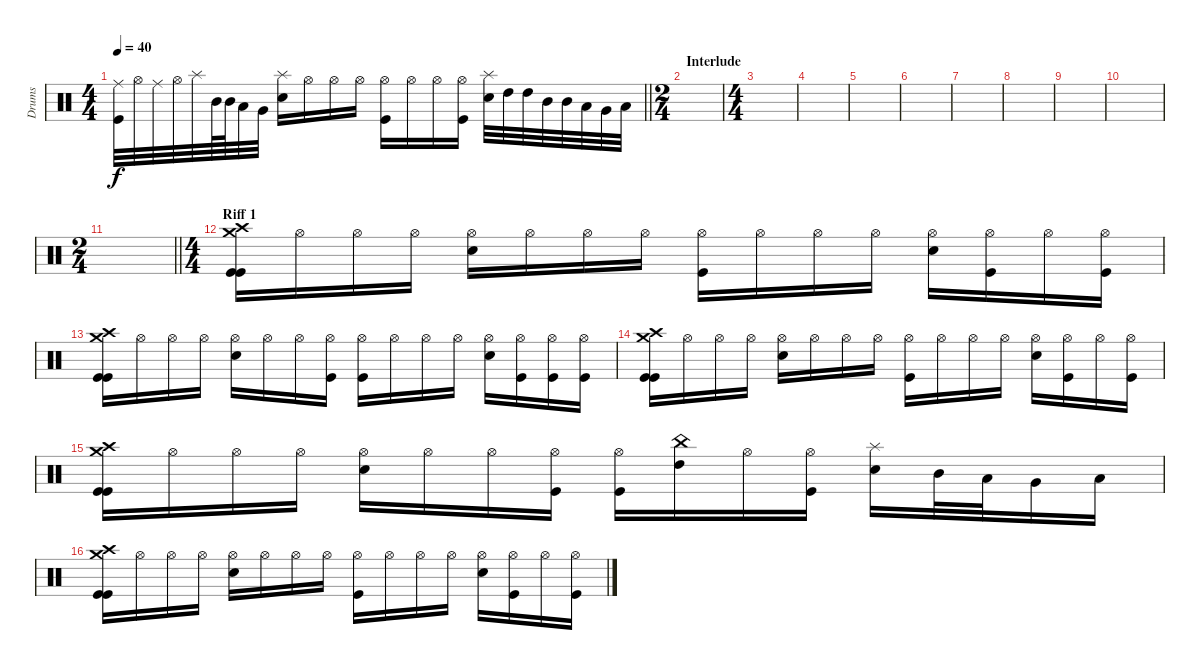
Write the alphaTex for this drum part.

\track ("Drums" "Drums") {instrument percussion}
\staff {score}
\articulation defaults
\ts (4 4)
\tempo 40
\clef neutral
\barLineRight lightlight
\ks c
("Kick (hit)" "Ride (middle)").32{dy f} "Hi-Hat (open)".32 "Ride (middle)".32 "Hi-Hat (open)".32 "Splash (hit)".32 "Mid Tom (hit)".64 "Mid Tom (hit)".64 "Low Tom (hit)".32 "Very Low Tom (hit)".32 ("Snare (hit) 2" "Splash (hit)").16 "Hi-Hat (open)".16 "Hi-Hat (open)".16 "Hi-Hat (open)".16 ("Hi-Hat (open)" "Kick (hit)").16 "Hi-Hat (open)".16 "Hi-Hat (open)".16 ("Kick (hit)" "Hi-Hat (open)").16 ("Splash (hit)" "Snare (hit) 2").32 "High Tom (hit)".32 "High Tom (hit)".32 "Mid Tom (hit)".32 "Mid Tom (hit)".32 "Low Tom (hit)".32 "Very Low Tom (hit)".32 "Low Floor Tom (hit)".32 |
\ts (2 4)
\section ("" "Interlude")
|
\ts (4 4)
|
|
|
|
|
|
|
|
\ts (2 4)
\barLineRight lightlight
|
\ts (4 4)
\section ("" "Riff 1")
("Crash medium (hit)" "Crash high (hit)" "Kick (hit)" "Kick (hit)").16 "Hi-Hat (open)".16 "Hi-Hat (open)".16 "Hi-Hat (open)".16 ("Hi-Hat (open)" "Snare (hit) 2").16 "Hi-Hat (open)".16 "Hi-Hat (open)".16 "Hi-Hat (open)".16 ("Hi-Hat (open)" "Kick (hit)").16 "Hi-Hat (open)".16 "Hi-Hat (open)".16 "Hi-Hat (open)".16 ("Hi-Hat (open)" "Snare (hit) 2").16 ("Hi-Hat (open)" "Kick (hit)").16 "Hi-Hat (open)".16 ("Hi-Hat (open)" "Kick (hit)").16 |
("Crash medium (hit)" "Crash high (hit)" "Kick (hit)" "Kick (hit)").16 "Hi-Hat (open)".16 "Hi-Hat (open)".16 "Hi-Hat (open)".16 ("Hi-Hat (open)" "Snare (hit) 2").16 "Hi-Hat (open)".16 "Hi-Hat (open)".16 ("Hi-Hat (open)" "Kick (hit)").16 ("Hi-Hat (open)" "Kick (hit)").16 "Hi-Hat (open)".16 "Hi-Hat (open)".16 "Hi-Hat (open)".16 ("Hi-Hat (open)" "Snare (hit) 2").16 ("Hi-Hat (open)" "Kick (hit)").16 ("Hi-Hat (open)" "Kick (hit)").16 ("Hi-Hat (open)" "Kick (hit)").16 |
("Crash medium (hit)" "Crash high (hit)" "Kick (hit)" "Kick (hit)").16 "Hi-Hat (open)".16 "Hi-Hat (open)".16 "Hi-Hat (open)".16 ("Hi-Hat (open)" "Snare (hit) 2").16 "Hi-Hat (open)".16 "Hi-Hat (open)".16 "Hi-Hat (open)".16 ("Hi-Hat (open)" "Kick (hit)").16 "Hi-Hat (open)".16 "Hi-Hat (open)".16 "Hi-Hat (open)".16 ("Hi-Hat (open)" "Snare (hit) 2").16 ("Hi-Hat (open)" "Kick (hit)").16 "Hi-Hat (open)".16 ("Hi-Hat (open)" "Kick (hit)").16 |
("Crash medium (hit)" "Crash high (hit)" "Kick (hit)" "Kick (hit)").16 "Hi-Hat (open)".16 "Hi-Hat (open)".16 "Hi-Hat (open)".16 ("Hi-Hat (open)" "Snare (hit) 2").16 "Hi-Hat (open)".16 "Hi-Hat (open)".16 ("Hi-Hat (open)" "Kick (hit)").16 ("Hi-Hat (open)" "Kick (hit)").16 ("High Tom (hit)" "China (hit)").16 "Hi-Hat (open)".16 ("Hi-Hat (open)" "Kick (hit)").16 ("Snare (hit) 2" "Splash (hit)").16 "Mid Tom (hit)".32 "Low Tom (hit)".32 "Very Low Tom (hit)".16 "Low Floor Tom (hit)".16 |
("Crash medium (hit)" "Crash high (hit)" "Kick (hit)" "Kick (hit)").16 "Hi-Hat (open)".16 "Hi-Hat (open)".16 "Hi-Hat (open)".16 ("Hi-Hat (open)" "Snare (hit) 2").16 "Hi-Hat (open)".16 "Hi-Hat (open)".16 "Hi-Hat (open)".16 ("Hi-Hat (open)" "Kick (hit)").16 "Hi-Hat (open)".16 "Hi-Hat (open)".16 "Hi-Hat (open)".16 ("Hi-Hat (open)" "Snare (hit) 2").16 ("Hi-Hat (open)" "Kick (hit)").16 "Hi-Hat (open)".16 ("Hi-Hat (open)" "Kick (hit)").16
